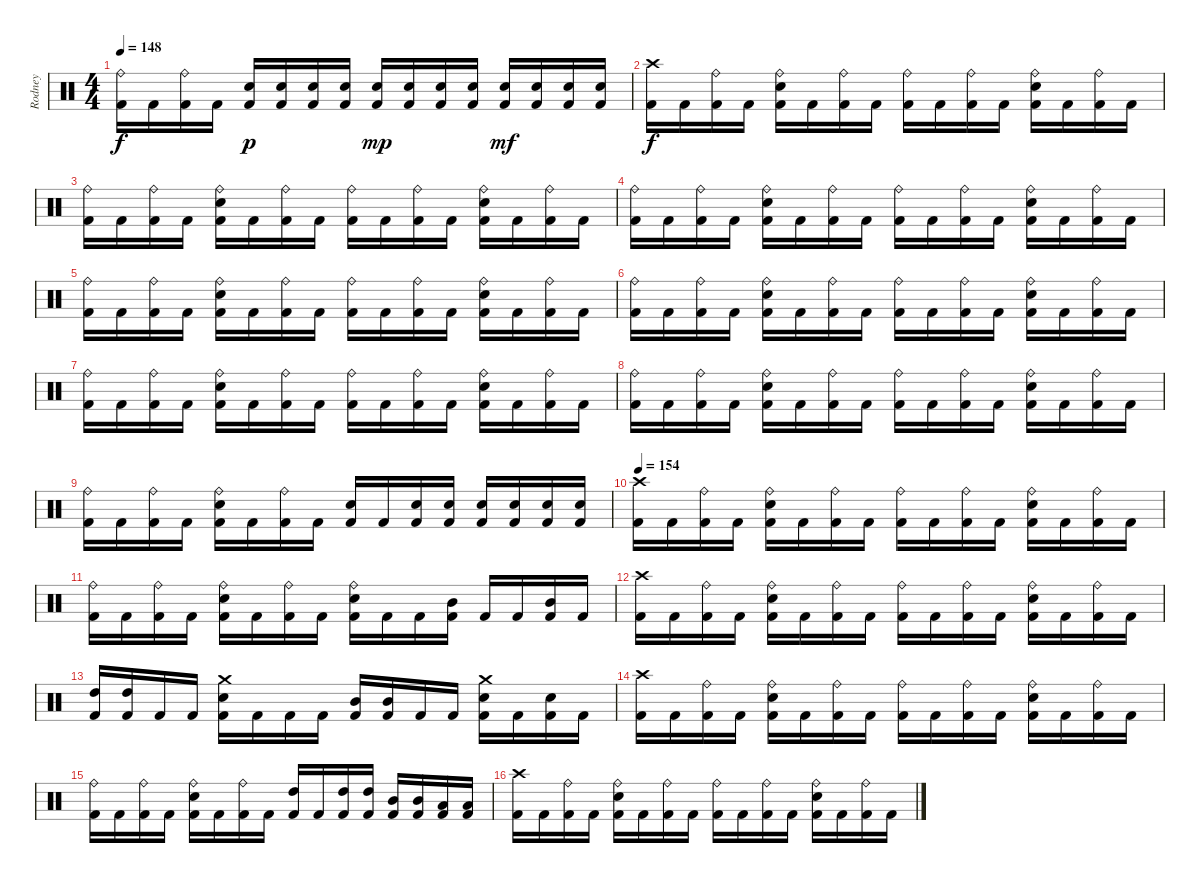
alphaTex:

\track ("Rodney" "Rodney") {instrument percussion}
\staff {score}
\articulation defaults
\ts (4 4)
\tempo 148
\clef neutral
\ks c
("Ride (bell)" "Kick (hit) 2").16{dy f} "Kick (hit) 2".16 ("Ride (bell)" "Kick (hit) 2").16 "Kick (hit) 2".16 ("Snare (hit) 2" "Kick (hit) 2").16{dy p} ("Snare (hit) 2" "Kick (hit) 2").16 ("Snare (hit) 2" "Kick (hit) 2").16 ("Snare (hit) 2" "Kick (hit) 2").16 ("Snare (hit) 2" "Kick (hit) 2").16{dy mp} ("Snare (hit) 2" "Kick (hit) 2").16 ("Snare (hit) 2" "Kick (hit) 2").16 ("Snare (hit) 2" "Kick (hit) 2").16 ("Snare (hit) 2" "Kick (hit) 2").16{dy mf} ("Snare (hit) 2" "Kick (hit) 2").16 ("Snare (hit) 2" "Kick (hit) 2").16 ("Snare (hit) 2" "Kick (hit) 2").16 |
("Crash high (hit)" "Kick (hit) 2").16{dy f} "Kick (hit) 2".16 ("Ride (bell)" "Kick (hit) 2").16 "Kick (hit) 2".16 ("Ride (bell)" "Snare (hit) 2" "Kick (hit) 2").16 "Kick (hit) 2".16 ("Ride (bell)" "Kick (hit) 2").16 "Kick (hit) 2".16 ("Ride (bell)" "Kick (hit) 2").16 "Kick (hit) 2".16 ("Ride (bell)" "Kick (hit) 2").16 "Kick (hit) 2".16 ("Ride (bell)" "Snare (hit) 2" "Kick (hit) 2").16 "Kick (hit) 2".16 ("Ride (bell)" "Kick (hit) 2").16 "Kick (hit) 2".16 |
("Ride (bell)" "Kick (hit) 2").16 "Kick (hit) 2".16 ("Ride (bell)" "Kick (hit) 2").16 "Kick (hit) 2".16 ("Ride (bell)" "Snare (hit) 2" "Kick (hit) 2").16 "Kick (hit) 2".16 ("Ride (bell)" "Kick (hit) 2").16 "Kick (hit) 2".16 ("Ride (bell)" "Kick (hit) 2").16 "Kick (hit) 2".16 ("Ride (bell)" "Kick (hit) 2").16 "Kick (hit) 2".16 ("Ride (bell)" "Snare (hit) 2" "Kick (hit) 2").16 "Kick (hit) 2".16 ("Ride (bell)" "Kick (hit) 2").16 "Kick (hit) 2".16 |
("Ride (bell)" "Kick (hit) 2").16 "Kick (hit) 2".16 ("Ride (bell)" "Kick (hit) 2").16 "Kick (hit) 2".16 ("Ride (bell)" "Snare (hit) 2" "Kick (hit) 2").16 "Kick (hit) 2".16 ("Ride (bell)" "Kick (hit) 2").16 "Kick (hit) 2".16 ("Ride (bell)" "Kick (hit) 2").16 "Kick (hit) 2".16 ("Ride (bell)" "Kick (hit) 2").16 "Kick (hit) 2".16 ("Ride (bell)" "Snare (hit) 2" "Kick (hit) 2").16 "Kick (hit) 2".16 ("Ride (bell)" "Kick (hit) 2").16 "Kick (hit) 2".16 |
("Ride (bell)" "Kick (hit) 2").16 "Kick (hit) 2".16 ("Ride (bell)" "Kick (hit) 2").16 "Kick (hit) 2".16 ("Ride (bell)" "Snare (hit) 2" "Kick (hit) 2").16 "Kick (hit) 2".16 ("Ride (bell)" "Kick (hit) 2").16 "Kick (hit) 2".16 ("Ride (bell)" "Kick (hit) 2").16 "Kick (hit) 2".16 ("Ride (bell)" "Kick (hit) 2").16 "Kick (hit) 2".16 ("Ride (bell)" "Snare (hit) 2" "Kick (hit) 2").16 "Kick (hit) 2".16 ("Ride (bell)" "Kick (hit) 2").16 "Kick (hit) 2".16 |
("Ride (bell)" "Kick (hit) 2").16 "Kick (hit) 2".16 ("Ride (bell)" "Kick (hit) 2").16 "Kick (hit) 2".16 ("Ride (bell)" "Snare (hit) 2" "Kick (hit) 2").16 "Kick (hit) 2".16 ("Ride (bell)" "Kick (hit) 2").16 "Kick (hit) 2".16 ("Ride (bell)" "Kick (hit) 2").16 "Kick (hit) 2".16 ("Ride (bell)" "Kick (hit) 2").16 "Kick (hit) 2".16 ("Ride (bell)" "Snare (hit) 2" "Kick (hit) 2").16 "Kick (hit) 2".16 ("Ride (bell)" "Kick (hit) 2").16 "Kick (hit) 2".16 |
("Ride (bell)" "Kick (hit) 2").16 "Kick (hit) 2".16 ("Ride (bell)" "Kick (hit) 2").16 "Kick (hit) 2".16 ("Ride (bell)" "Snare (hit) 2" "Kick (hit) 2").16 "Kick (hit) 2".16 ("Ride (bell)" "Kick (hit) 2").16 "Kick (hit) 2".16 ("Ride (bell)" "Kick (hit) 2").16 "Kick (hit) 2".16 ("Ride (bell)" "Kick (hit) 2").16 "Kick (hit) 2".16 ("Ride (bell)" "Snare (hit) 2" "Kick (hit) 2").16 "Kick (hit) 2".16 ("Ride (bell)" "Kick (hit) 2").16 "Kick (hit) 2".16 |
("Ride (bell)" "Kick (hit) 2").16 "Kick (hit) 2".16 ("Ride (bell)" "Kick (hit) 2").16 "Kick (hit) 2".16 ("Ride (bell)" "Snare (hit) 2" "Kick (hit) 2").16 "Kick (hit) 2".16 ("Ride (bell)" "Kick (hit) 2").16 "Kick (hit) 2".16 ("Ride (bell)" "Kick (hit) 2").16 "Kick (hit) 2".16 ("Ride (bell)" "Kick (hit) 2").16 "Kick (hit) 2".16 ("Ride (bell)" "Snare (hit) 2" "Kick (hit) 2").16 "Kick (hit) 2".16 ("Ride (bell)" "Kick (hit) 2").16 "Kick (hit) 2".16 |
("Ride (bell)" "Kick (hit) 2").16 "Kick (hit) 2".16 ("Ride (bell)" "Kick (hit) 2").16 "Kick (hit) 2".16 ("Ride (bell)" "Snare (hit) 2" "Kick (hit) 2").16 "Kick (hit) 2".16 ("Ride (bell)" "Kick (hit) 2").16 "Kick (hit) 2".16 ("Snare (hit) 2" "Kick (hit) 2").16 "Kick (hit) 2".16 ("Snare (hit) 2" "Kick (hit) 2").16 ("Snare (hit) 2" "Kick (hit) 2").16 ("Snare (hit) 2" "Kick (hit) 2").16 ("Snare (hit) 2" "Kick (hit) 2").16 ("Snare (hit) 2" "Kick (hit) 2").16 ("Snare (hit) 2" "Kick (hit) 2").16 |
\tempo 154
("Crash high (hit)" "Kick (hit) 2").16 "Kick (hit) 2".16 ("Ride (bell)" "Kick (hit) 2").16 "Kick (hit) 2".16 ("Ride (bell)" "Snare (hit) 2" "Kick (hit) 2").16 "Kick (hit) 2".16 ("Ride (bell)" "Kick (hit) 2").16 "Kick (hit) 2".16 ("Ride (bell)" "Kick (hit) 2").16 "Kick (hit) 2".16 ("Ride (bell)" "Kick (hit) 2").16 "Kick (hit) 2".16 ("Ride (bell)" "Snare (hit) 2" "Kick (hit) 2").16 "Kick (hit) 2".16 ("Ride (bell)" "Kick (hit) 2").16 "Kick (hit) 2".16 |
("Ride (bell)" "Kick (hit) 2").16 "Kick (hit) 2".16 ("Ride (bell)" "Kick (hit) 2").16 "Kick (hit) 2".16 ("Ride (bell)" "Snare (hit) 2" "Kick (hit) 2").16 "Kick (hit) 2".16 ("Ride (bell)" "Kick (hit) 2").16 "Kick (hit) 2".16 ("Ride (bell)" "Snare (hit) 2" "Kick (hit) 2").16 "Kick (hit) 2".16 "Kick (hit) 2".16 ("Mid Tom (hit)" "Kick (hit) 2").16 "Kick (hit) 2".16 "Kick (hit) 2".16 ("Mid Tom (hit)" "Kick (hit) 2").16 "Kick (hit) 2".16 |
("Crash high (hit)" "Kick (hit) 2").16 "Kick (hit) 2".16 ("Ride (bell)" "Kick (hit) 2").16 "Kick (hit) 2".16 ("Ride (bell)" "Snare (hit) 2" "Kick (hit) 2").16 "Kick (hit) 2".16 ("Ride (bell)" "Kick (hit) 2").16 "Kick (hit) 2".16 ("Ride (bell)" "Kick (hit) 2").16 "Kick (hit) 2".16 ("Ride (bell)" "Kick (hit) 2").16 "Kick (hit) 2".16 ("Ride (bell)" "Snare (hit) 2" "Kick (hit) 2").16 "Kick (hit) 2".16 ("Ride (bell)" "Kick (hit) 2").16 "Kick (hit) 2".16 |
("High Tom (hit)" "Kick (hit) 2").16 ("High Tom (hit)" "Kick (hit) 2").16 "Kick (hit) 2".16 "Kick (hit) 2".16 ("Crash medium (hit)" "Snare (hit) 2" "Kick (hit) 2").16 "Kick (hit) 2".16 "Kick (hit) 2".16 "Kick (hit) 2".16 ("Mid Tom (hit)" "Kick (hit) 2").16 ("Mid Tom (hit)" "Kick (hit) 2").16 "Kick (hit) 2".16 "Kick (hit) 2".16 ("Crash medium (hit)" "Snare (hit) 2" "Kick (hit) 2").16 "Kick (hit) 2".16 ("Snare (hit) 2" "Kick (hit) 2").16 "Kick (hit) 2".16 |
("Crash high (hit)" "Kick (hit) 2").16 "Kick (hit) 2".16 ("Ride (bell)" "Kick (hit) 2").16 "Kick (hit) 2".16 ("Ride (bell)" "Snare (hit) 2" "Kick (hit) 2").16 "Kick (hit) 2".16 ("Ride (bell)" "Kick (hit) 2").16 "Kick (hit) 2".16 ("Ride (bell)" "Kick (hit) 2").16 "Kick (hit) 2".16 ("Ride (bell)" "Kick (hit) 2").16 "Kick (hit) 2".16 ("Ride (bell)" "Snare (hit) 2" "Kick (hit) 2").16 "Kick (hit) 2".16 ("Ride (bell)" "Kick (hit) 2").16 "Kick (hit) 2".16 |
("Ride (bell)" "Kick (hit) 2").16 "Kick (hit) 2".16 ("Ride (bell)" "Kick (hit) 2").16 "Kick (hit) 2".16 ("Ride (bell)" "Snare (hit) 2" "Kick (hit) 2").16 "Kick (hit) 2".16 ("Ride (bell)" "Kick (hit) 2").16 "Kick (hit) 2".16 ("High Tom (hit)" "Kick (hit) 2").16 "Kick (hit) 2".16 ("High Tom (hit)" "Kick (hit) 2").16 ("High Tom (hit)" "Kick (hit) 2").16 ("Mid Tom (hit)" "Kick (hit) 2").16 ("Mid Tom (hit)" "Kick (hit) 2").16 ("Low Tom (hit)" "Kick (hit) 2").16 ("Low Tom (hit)" "Kick (hit) 2").16 |
("Crash high (hit)" "Kick (hit) 2").16 "Kick (hit) 2".16 ("Ride (bell)" "Kick (hit) 2").16 "Kick (hit) 2".16 ("Ride (bell)" "Snare (hit) 2" "Kick (hit) 2").16 "Kick (hit) 2".16 ("Ride (bell)" "Kick (hit) 2").16 "Kick (hit) 2".16 ("Ride (bell)" "Kick (hit) 2").16 "Kick (hit) 2".16 ("Ride (bell)" "Kick (hit) 2").16 "Kick (hit) 2".16 ("Ride (bell)" "Snare (hit) 2" "Kick (hit) 2").16 "Kick (hit) 2".16 ("Ride (bell)" "Kick (hit) 2").16 "Kick (hit) 2".16
